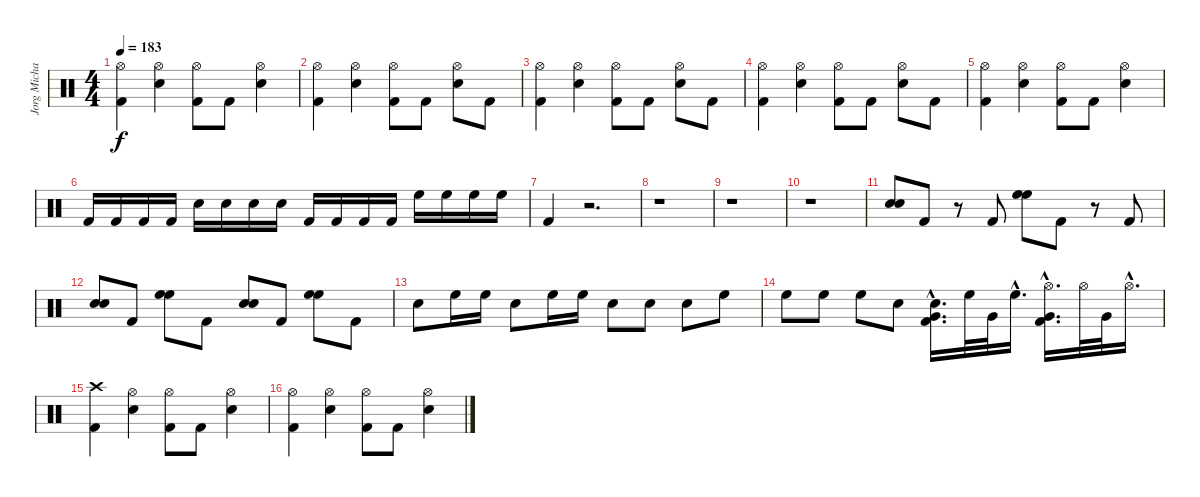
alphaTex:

\track ("Jorg Michael" "Jorg Micha") {instrument percussion}
\staff {score}
\articulation defaults
\ts (4 4)
\tempo 183
\clef neutral
\ks c
("Kick (hit) 2" "Hi-Hat (open)").4{dy f} ("Snare (hit) 2" "Hi-Hat (open)").4 ("Kick (hit) 2" "Hi-Hat (open)").8 "Kick (hit) 2".8 ("Snare (hit) 2" "Hi-Hat (open)").4 |
("Kick (hit) 2" "Hi-Hat (open)").4 ("Snare (hit) 2" "Hi-Hat (open)").4 ("Kick (hit) 2" "Hi-Hat (open)").8 "Kick (hit) 2".8 ("Snare (hit) 2" "Hi-Hat (open)").8 "Kick (hit) 2".8 |
("Kick (hit) 2" "Hi-Hat (open)").4 ("Snare (hit) 2" "Hi-Hat (open)").4 ("Kick (hit) 2" "Hi-Hat (open)").8 "Kick (hit) 2".8 ("Snare (hit) 2" "Hi-Hat (open)").8 "Kick (hit) 2".8 |
("Kick (hit) 2" "Hi-Hat (open)").4 ("Snare (hit) 2" "Hi-Hat (open)").4 ("Kick (hit) 2" "Hi-Hat (open)").8 "Kick (hit) 2".8 ("Snare (hit) 2" "Hi-Hat (open)").8 "Kick (hit) 2".8 |
("Kick (hit) 2" "Hi-Hat (open)").4 ("Snare (hit) 2" "Hi-Hat (open)").4 ("Kick (hit) 2" "Hi-Hat (open)").8 "Kick (hit) 2".8 ("Snare (hit) 2" "Hi-Hat (open)").4 |
"Kick (hit) 2".16 "Kick (hit) 2".16 "Kick (hit) 2".16 "Kick (hit) 2".16 "Snare (hit) 2".16 "Snare (hit) 2".16 "Snare (hit) 2".16 "Snare (hit) 2".16 "Kick (hit) 2".16 "Kick (hit) 2".16 "Kick (hit) 2".16 "Kick (hit) 2".16 "High Floor Tom (hit)".16 "High Floor Tom (hit)".16 "High Floor Tom (hit)".16 "High Floor Tom (hit)".16 |
"Kick (hit) 2".4 r.2{d} |
r.1 |
r.1 |
r.1 |
("Snare (hit) 2" "Snare (hit) 2").8 "Kick (hit) 2".8 r.8 "Kick (hit) 2".8 ("High Floor Tom (hit)" "High Floor Tom (hit)").8 "Kick (hit) 2".8 r.8 "Kick (hit) 2".8 |
("Snare (hit) 2" "Snare (hit) 2").8 "Kick (hit) 2".8 ("High Floor Tom (hit)" "High Floor Tom (hit)").8 "Kick (hit) 2".8 ("Snare (hit) 2" "Snare (hit) 2").8 "Kick (hit) 2".8 ("High Floor Tom (hit)" "High Floor Tom (hit)").8 "Kick (hit) 2".8 |
"Snare (hit) 2".8 "High Floor Tom (hit)".16 "High Floor Tom (hit)".16 "Snare (hit) 2".8 "High Floor Tom (hit)".16 "High Floor Tom (hit)".16 "Snare (hit) 2".8 "Snare (hit) 2".8 "Snare (hit) 2".8 "High Floor Tom (hit)".8 |
"High Floor Tom (hit)".8 "High Floor Tom (hit)".8 "High Floor Tom (hit)".8 "Snare (hit) 2".8 ("Snare (hit) 2"{hac} "Very Low Tom (hit)" "Kick (hit) 2").16{d} "High Floor Tom (hit)".32 "Very Low Tom (hit)".32 "High Floor Tom (hit)"{hac}.16{d} ("Hi-Hat (open)"{hac} "Very Low Tom (hit)" "Kick (hit) 2").16{d} "Hi-Hat (open)".32 "Very Low Tom (hit)".32 "Hi-Hat (open)"{hac}.16{d} |
("Kick (hit) 2" "Crash high (hit)").4 ("Snare (hit) 2" "Hi-Hat (open)").4 ("Kick (hit) 2" "Hi-Hat (open)").8 "Kick (hit) 2".8 ("Snare (hit) 2" "Hi-Hat (open)").4 |
("Kick (hit) 2" "Hi-Hat (open)").4 ("Snare (hit) 2" "Hi-Hat (open)").4 ("Kick (hit) 2" "Hi-Hat (open)").8 "Kick (hit) 2".8 ("Snare (hit) 2" "Hi-Hat (open)").4
